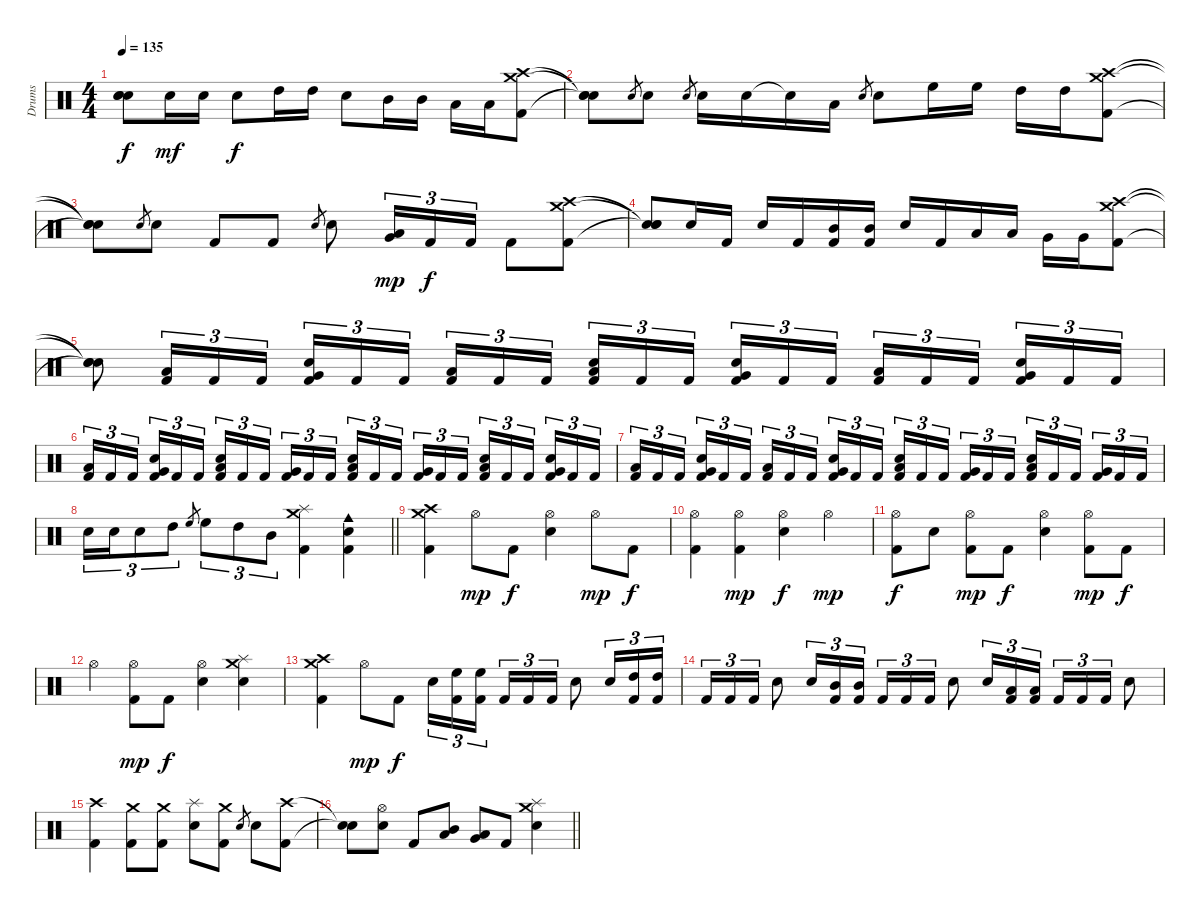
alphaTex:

\track ("Drums" "Drums") {instrument percussion}
\staff {score}
\articulation defaults
\ts (4 4)
\tempo 135
\clef neutral
\ks c
("Snare (hit)"{t} "Snare (hit)"{t} "Snare (hit)"{t}).8{dy f} "Electric Snare (hit)".16{dy mf} "Electric Snare (hit)".16 "Electric Snare (hit)".8{dy f} "High Tom (hit)".16 "High Tom (hit)".16 "Electric Snare (hit)".8 "Mid Tom (hit)".16 "Mid Tom (hit)".16 "Low Tom (hit)".16 "Low Tom (hit)".16 ("Crash high (hit)" "Crash medium (hit)" "Kick (hit) 2").8 |
("Snare (hit)"{t} "Snare (hit)"{t} "Snare (hit)"{t}).8 "Electric Snare (hit)".8{gr} "Electric Snare (hit)".8 "Electric Snare (hit)".8{gr} "Electric Snare (hit)".16 "Electric Snare (hit)".16 "Snare (hit)"{t}.16 "Low Tom (hit)".16 "Electric Snare (hit)".8{gr} "Electric Snare (hit)".8 "High Floor Tom (hit)".16 "High Floor Tom (hit)".16 "High Tom (hit)".16 "High Tom (hit)".16 ("Crash high (hit)" "Crash medium (hit)" "Kick (hit) 2").8 |
("Snare (hit)"{t} "Snare (hit)"{t} "Snare (hit)"{t}).8 "Electric Snare (hit)".8{gr} "Electric Snare (hit)".8 "Kick (hit) 2".8 "Kick (hit) 2".8 "Electric Snare (hit)".8{gr} "Electric Snare (hit)".8 ("Very Low Tom (hit)" "Low Tom (hit)").16{tu (3 2) dy mp} "Kick (hit) 2".16{tu (3 2) dy f} "Kick (hit) 2".16{tu (3 2)} "Kick (hit) 2".8 ("Crash high (hit)" "Crash medium (hit)" "Kick (hit) 2").8 |
("Snare (hit)"{t} "Snare (hit)"{t} "Snare (hit)"{t}).8 "Electric Snare (hit)".16 "Kick (hit) 2".16 "Electric Snare (hit)".16 "Kick (hit) 2".16 ("Mid Tom (hit)" "Kick (hit) 2").16 ("Mid Tom (hit)" "Kick (hit) 2").16 "Electric Snare (hit)".16 "Kick (hit) 2".16 "Low Tom (hit)".16 "Low Tom (hit)".16 "Very Low Tom (hit)".16 "Very Low Tom (hit)".16 ("Crash high (hit)" "Crash medium (hit)" "Kick (hit) 2").8 |
("Snare (hit)"{t} "Snare (hit)"{t} "Snare (hit)"{t}).8 ("Low Tom (hit)" "Kick (hit) 2").16{tu (3 2)} "Kick (hit) 2".16{tu (3 2)} "Kick (hit) 2".16{tu (3 2)} ("Very Low Tom (hit)" "Electric Snare (hit)" "Kick (hit) 2").16{tu (3 2)} "Kick (hit) 2".16{tu (3 2)} "Kick (hit) 2".16{tu (3 2)} ("Low Tom (hit)" "Kick (hit) 2").16{tu (3 2)} "Kick (hit) 2".16{tu (3 2)} "Kick (hit) 2".16{tu (3 2)} ("Low Tom (hit)" "Electric Snare (hit)" "Kick (hit) 2").16{tu (3 2)} "Kick (hit) 2".16{tu (3 2)} "Kick (hit) 2".16{tu (3 2)} ("Very Low Tom (hit)" "Electric Snare (hit)" "Kick (hit) 2").16{tu (3 2)} "Kick (hit) 2".16{tu (3 2)} "Kick (hit) 2".16{tu (3 2)} ("Low Tom (hit)" "Kick (hit) 2").16{tu (3 2)} "Kick (hit) 2".16{tu (3 2)} "Kick (hit) 2".16{tu (3 2)} ("Very Low Tom (hit)" "Electric Snare (hit)" "Kick (hit) 2").16{tu (3 2)} "Kick (hit) 2".16{tu (3 2)} "Kick (hit) 2".16{tu (3 2)} |
("Low Tom (hit)" "Kick (hit) 2").16{tu (3 2)} "Kick (hit) 2".16{tu (3 2)} "Kick (hit) 2".16{tu (3 2)} ("Very Low Tom (hit)" "Electric Snare (hit)" "Kick (hit) 2").16{tu (3 2)} "Kick (hit) 2".16{tu (3 2)} "Kick (hit) 2".16{tu (3 2)} ("Low Tom (hit)" "Electric Snare (hit)" "Kick (hit) 2").16{tu (3 2)} "Kick (hit) 2".16{tu (3 2)} "Kick (hit) 2".16{tu (3 2)} ("Very Low Tom (hit)" "Kick (hit) 2").16{tu (3 2)} "Kick (hit) 2".16{tu (3 2)} "Kick (hit) 2".16{tu (3 2)} ("Low Tom (hit)" "Electric Snare (hit)" "Kick (hit) 2").16{tu (3 2)} "Kick (hit) 2".16{tu (3 2)} "Kick (hit) 2".16{tu (3 2)} ("Very Low Tom (hit)" "Kick (hit) 2").16{tu (3 2)} "Kick (hit) 2".16{tu (3 2)} "Kick (hit) 2".16{tu (3 2)} ("Low Tom (hit)" "Electric Snare (hit)" "Kick (hit) 2").16{tu (3 2)} "Kick (hit) 2".16{tu (3 2)} "Kick (hit) 2".16{tu (3 2)} ("Very Low Tom (hit)" "Electric Snare (hit)" "Kick (hit) 2").16{tu (3 2)} "Kick (hit) 2".16{tu (3 2)} "Kick (hit) 2".16{tu (3 2)} |
("Low Tom (hit)" "Kick (hit) 2").16{tu (3 2)} "Kick (hit) 2".16{tu (3 2)} "Kick (hit) 2".16{tu (3 2)} ("Very Low Tom (hit)" "Electric Snare (hit)" "Kick (hit) 2").16{tu (3 2)} "Kick (hit) 2".16{tu (3 2)} "Kick (hit) 2".16{tu (3 2)} ("Low Tom (hit)" "Kick (hit) 2").16{tu (3 2)} "Kick (hit) 2".16{tu (3 2)} "Kick (hit) 2".16{tu (3 2)} ("Very Low Tom (hit)" "Electric Snare (hit)" "Kick (hit) 2").16{tu (3 2)} "Kick (hit) 2".16{tu (3 2)} "Kick (hit) 2".16{tu (3 2)} ("Low Tom (hit)" "Electric Snare (hit)" "Kick (hit) 2").16{tu (3 2)} "Kick (hit) 2".16{tu (3 2)} "Kick (hit) 2".16{tu (3 2)} ("Very Low Tom (hit)" "Kick (hit) 2").16{tu (3 2)} "Kick (hit) 2".16{tu (3 2)} "Kick (hit) 2".16{tu (3 2)} ("Low Tom (hit)" "Electric Snare (hit)" "Kick (hit) 2").16{tu (3 2)} "Kick (hit) 2".16{tu (3 2)} "Kick (hit) 2".16{tu (3 2)} ("Very Low Tom (hit)" "Kick (hit) 2").16{tu (3 2)} "Kick (hit) 2".16{tu (3 2)} "Kick (hit) 2".16{tu (3 2)} |
\barLineRight lightlight "Electric Snare (hit)".16{tu (3 2)} "Electric Snare (hit)".16{tu (3 2)} "Electric Snare (hit)".8{tu (3 2)} "High Tom (hit)".8{tu (3 2)} "High Floor Tom (hit)".8{gr} "High Floor Tom (hit)".8{tu (3 2)} "High Tom (hit)".8{tu (3 2)} "Mid Tom (hit)".8{tu (3 2)}
("Crash medium (hit)" "Splash (hit)" "Kick (hit) 2").4 ("Cowbell medium (hit)" "Electric Snare (hit)" "Kick (hit) 2").4 |
("Crash high (hit)" "Crash medium (hit)" "Kick (hit) 2").4 "Hi-Hat (open)".8{dy mp} "Kick (hit) 2".8{dy f} ("Hi-Hat (open)" "Electric Snare (hit)").4 "Hi-Hat (open)".8{dy mp} "Kick (hit) 2".8{dy f} |
("Hi-Hat (open)" "Kick (hit) 2").4 ("Hi-Hat (open)" "Kick (hit) 2").4{dy mp} ("Hi-Hat (open)" "Electric Snare (hit)").4{dy f} "Hi-Hat (open)".4{dy mp} |
("Hi-Hat (open)" "Kick (hit) 2").8{dy f} "Electric Snare (hit)".8 ("Hi-Hat (open)" "Kick (hit) 2").8{dy mp} "Kick (hit) 2".8{dy f} ("Hi-Hat (open)" "Electric Snare (hit)").4 ("Hi-Hat (open)" "Kick (hit) 2").8{dy mp} "Kick (hit) 2".8{dy f} |
"Hi-Hat (open)".4 ("Hi-Hat (open)" "Kick (hit) 2").8{dy mp} "Kick (hit) 2".8{dy f} ("Hi-Hat (open)" "Electric Snare (hit)").4 ("Crash medium (hit)" "Splash (hit)" "Electric Snare (hit)").4 |
("Crash high (hit)" "Crash medium (hit)" "Kick (hit) 2").4 "Hi-Hat (open)".8{dy mp} "Kick (hit) 2".8{dy f} "Electric Snare (hit)".16{tu (3 2)} ("High Floor Tom (hit)" "Kick (hit) 2").16{tu (3 2)} ("High Floor Tom (hit)" "Kick (hit) 2").16{tu (3 2)} "Kick (hit) 2".16{tu (3 2)} "Kick (hit) 2".16{tu (3 2)} "Kick (hit) 2".16{tu (3 2)} "Electric Snare (hit)".8 "Electric Snare (hit)".16{tu (3 2)} ("High Tom (hit)" "Kick (hit) 2").16{tu (3 2)} ("High Tom (hit)" "Kick (hit) 2").16{tu (3 2)} |
"Kick (hit) 2".16{tu (3 2)} "Kick (hit) 2".16{tu (3 2)} "Kick (hit) 2".16{tu (3 2)} "Electric Snare (hit)".8 "Electric Snare (hit)".16{tu (3 2)} ("Mid Tom (hit)" "Kick (hit) 2").16{tu (3 2)} ("Mid Tom (hit)" "Kick (hit) 2").16{tu (3 2)} "Kick (hit) 2".16{tu (3 2)} "Kick (hit) 2".16{tu (3 2)} "Kick (hit) 2".16{tu (3 2)} "Electric Snare (hit)".8 "Electric Snare (hit)".16{tu (3 2)} ("Low Tom (hit)" "Kick (hit) 2").16{tu (3 2)} ("Low Tom (hit)" "Kick (hit) 2").16{tu (3 2)} "Kick (hit) 2".16{tu (3 2)} "Kick (hit) 2".16{tu (3 2)} "Kick (hit) 2".16{tu (3 2)} "Electric Snare (hit)".8 |
("Crash high (hit)" "Kick (hit) 2").4 ("Crash medium (hit)" "Kick (hit) 2").8 ("Crash medium (hit)" "Kick (hit) 2").8 ("Splash (hit)" "Electric Snare (hit)").8 ("Crash medium (hit)" "Kick (hit) 2").8 "Electric Snare (hit)".8{gr} "Electric Snare (hit)".8 ("Crash high (hit)" "Kick (hit) 2").8 |
\barLineRight lightlight
("Snare (hit)"{t} "Snare (hit)"{t}).8 ("Hi-Hat (open)" "Electric Snare (hit)").8 "Kick (hit) 2".8 ("Mid Tom (hit)" "Low Tom (hit)").8 ("Low Tom (hit)" "Very Low Tom (hit)").8 "Kick (hit) 2".8 ("Crash medium (hit)" "Splash (hit)" "Electric Snare (hit)").4
